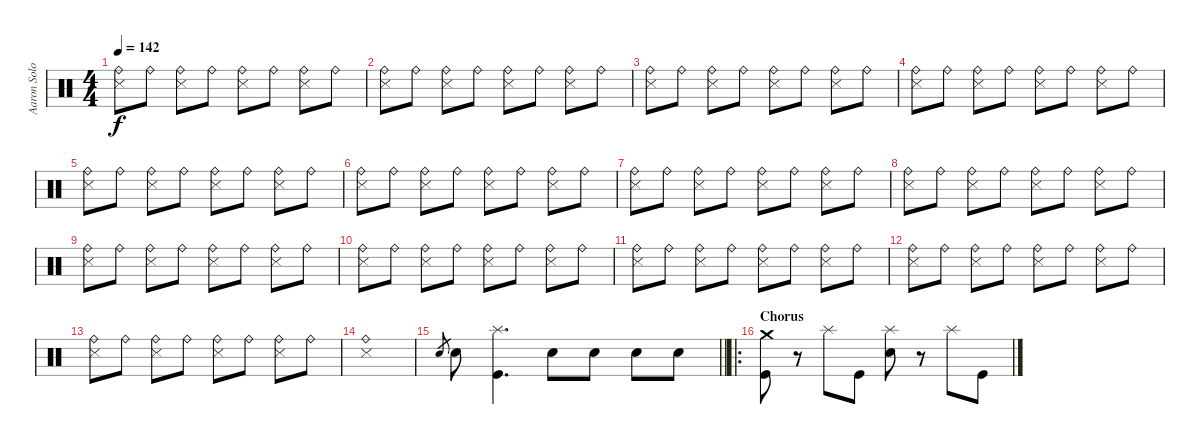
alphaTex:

\track ("Aaron Solowoniuk" "Aaron Solo") {instrument percussion}
\staff {score}
\articulation defaults
\ts (4 4)
\tempo 142
\clef neutral
\ks c
("Ride (bell)" "Snare (side stick) 3").8{dy f} "Ride (bell)".8 ("Ride (bell)" "Snare (side stick) 3").8 "Ride (bell)".8 ("Ride (bell)" "Snare (side stick) 3").8 "Ride (bell)".8 ("Ride (bell)" "Snare (side stick) 3").8 "Ride (bell)".8 |
("Ride (bell)" "Snare (side stick) 3").8 "Ride (bell)".8 ("Ride (bell)" "Snare (side stick) 3").8 "Ride (bell)".8 ("Ride (bell)" "Snare (side stick) 3").8 "Ride (bell)".8 ("Ride (bell)" "Snare (side stick) 3").8 "Ride (bell)".8 |
("Ride (bell)" "Snare (side stick) 3").8 "Ride (bell)".8 ("Ride (bell)" "Snare (side stick) 3").8 "Ride (bell)".8 ("Ride (bell)" "Snare (side stick) 3").8 "Ride (bell)".8 ("Ride (bell)" "Snare (side stick) 3").8 "Ride (bell)".8 |
("Ride (bell)" "Snare (side stick) 3").8 "Ride (bell)".8 ("Ride (bell)" "Snare (side stick) 3").8 "Ride (bell)".8 ("Ride (bell)" "Snare (side stick) 3").8 "Ride (bell)".8 ("Ride (bell)" "Snare (side stick) 3").8 "Ride (bell)".8 |
("Ride (bell)" "Snare (side stick) 3").8 "Ride (bell)".8 ("Ride (bell)" "Snare (side stick) 3").8 "Ride (bell)".8 ("Ride (bell)" "Snare (side stick) 3").8 "Ride (bell)".8 ("Ride (bell)" "Snare (side stick) 3").8 "Ride (bell)".8 |
("Ride (bell)" "Snare (side stick) 3").8 "Ride (bell)".8 ("Ride (bell)" "Snare (side stick) 3").8 "Ride (bell)".8 ("Ride (bell)" "Snare (side stick) 3").8 "Ride (bell)".8 ("Ride (bell)" "Snare (side stick) 3").8 "Ride (bell)".8 |
("Ride (bell)" "Snare (side stick) 3").8 "Ride (bell)".8 ("Ride (bell)" "Snare (side stick) 3").8 "Ride (bell)".8 ("Ride (bell)" "Snare (side stick) 3").8 "Ride (bell)".8 ("Ride (bell)" "Snare (side stick) 3").8 "Ride (bell)".8 |
("Ride (bell)" "Snare (side stick) 3").8 "Ride (bell)".8 ("Ride (bell)" "Snare (side stick) 3").8 "Ride (bell)".8 ("Ride (bell)" "Snare (side stick) 3").8 "Ride (bell)".8 ("Ride (bell)" "Snare (side stick) 3").8 "Ride (bell)".8 |
("Ride (bell)" "Snare (side stick) 3").8 "Ride (bell)".8 ("Ride (bell)" "Snare (side stick) 3").8 "Ride (bell)".8 ("Ride (bell)" "Snare (side stick) 3").8 "Ride (bell)".8 ("Ride (bell)" "Snare (side stick) 3").8 "Ride (bell)".8 |
("Ride (bell)" "Snare (side stick) 3").8 "Ride (bell)".8 ("Ride (bell)" "Snare (side stick) 3").8 "Ride (bell)".8 ("Ride (bell)" "Snare (side stick) 3").8 "Ride (bell)".8 ("Ride (bell)" "Snare (side stick) 3").8 "Ride (bell)".8 |
("Ride (bell)" "Snare (side stick) 3").8 "Ride (bell)".8 ("Ride (bell)" "Snare (side stick) 3").8 "Ride (bell)".8 ("Ride (bell)" "Snare (side stick) 3").8 "Ride (bell)".8 ("Ride (bell)" "Snare (side stick) 3").8 "Ride (bell)".8 |
("Ride (bell)" "Snare (side stick) 3").8 "Ride (bell)".8 ("Ride (bell)" "Snare (side stick) 3").8 "Ride (bell)".8 ("Ride (bell)" "Snare (side stick) 3").8 "Ride (bell)".8 ("Ride (bell)" "Snare (side stick) 3").8 "Ride (bell)".8 |
("Ride (bell)" "Snare (side stick) 3").8 "Ride (bell)".8 ("Ride (bell)" "Snare (side stick) 3").8 "Ride (bell)".8 ("Ride (bell)" "Snare (side stick) 3").8 "Ride (bell)".8 ("Ride (bell)" "Snare (side stick) 3").8 "Ride (bell)".8 |
("Ride (bell)" "Snare (side stick) 3").1 |
\barLineRight lightlight "Electric Snare (hit)".8{gr} "Electric Snare (hit)".8
("Splash (hit)" "Kick (hit)").4{d} "Electric Snare (hit)".8 "Electric Snare (hit)".8 "Electric Snare (hit)".8 "Electric Snare (hit)".8 |
\ro
\section ("" "Chorus")
("Crash medium (hit)" "Kick (hit)").8 r.8 "Splash (hit)".8 "Kick (hit)".8 ("Splash (hit)" "Electric Snare (hit)").8 r.8 "Splash (hit)".8 "Kick (hit)".8
